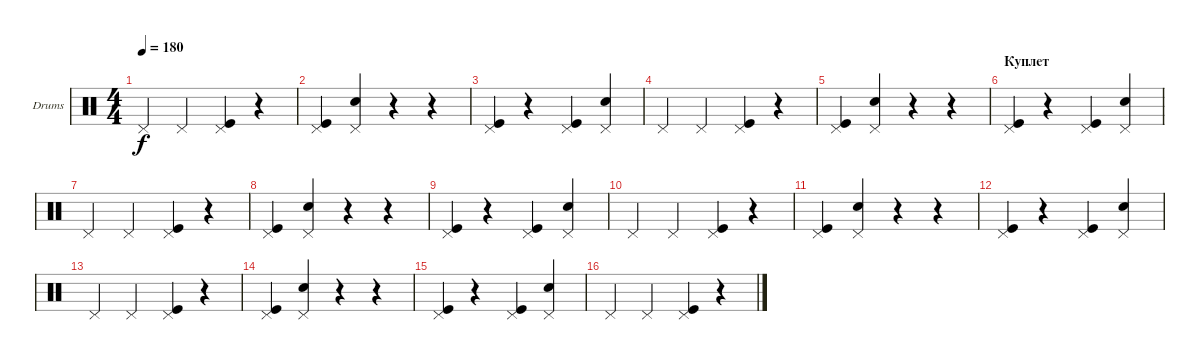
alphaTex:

\defaultSystemsLayout 4
\bracketExtendMode groupsimilarinstruments
\firstSystemTrackNameOrientation horizontal
\otherSystemsTrackNameOrientation horizontal
\track ("Георгий Гурьянов" "Drums") {instrument percussion}
\staff {score}
\articulation defaults
\ts (4 4)
\tempo 180
\clef neutral
\ks c "Pedal Hi-Hat (hit)".4{dy f} "Pedal Hi-Hat (hit)".4
("Pedal Hi-Hat (hit)" "Kick (hit)").4 r.4 |
("Pedal Hi-Hat (hit)" "Kick (hit)").4 ("Pedal Hi-Hat (hit)" "Snare (hit) 2").4 r.4 r.4 |
("Pedal Hi-Hat (hit)" "Kick (hit)").4 r.4 ("Pedal Hi-Hat (hit)" "Kick (hit)").4 ("Pedal Hi-Hat (hit)" "Snare (hit) 2").4 |
"Pedal Hi-Hat (hit)".4 "Pedal Hi-Hat (hit)".4 ("Pedal Hi-Hat (hit)" "Kick (hit)").4 r.4 |
("Pedal Hi-Hat (hit)" "Kick (hit)").4 ("Pedal Hi-Hat (hit)" "Snare (hit) 2").4 r.4 r.4 |
\section ("" "Куплет")
("Pedal Hi-Hat (hit)" "Kick (hit)").4 r.4 ("Pedal Hi-Hat (hit)" "Kick (hit)").4 ("Pedal Hi-Hat (hit)" "Snare (hit) 2").4 |
"Pedal Hi-Hat (hit)".4 "Pedal Hi-Hat (hit)".4 ("Pedal Hi-Hat (hit)" "Kick (hit)").4 r.4 |
("Pedal Hi-Hat (hit)" "Kick (hit)").4 ("Pedal Hi-Hat (hit)" "Snare (hit) 2").4 r.4 r.4 |
("Pedal Hi-Hat (hit)" "Kick (hit)").4 r.4 ("Pedal Hi-Hat (hit)" "Kick (hit)").4 ("Pedal Hi-Hat (hit)" "Snare (hit) 2").4 |
"Pedal Hi-Hat (hit)".4 "Pedal Hi-Hat (hit)".4 ("Pedal Hi-Hat (hit)" "Kick (hit)").4 r.4 |
("Pedal Hi-Hat (hit)" "Kick (hit)").4 ("Pedal Hi-Hat (hit)" "Snare (hit) 2").4 r.4 r.4 |
("Pedal Hi-Hat (hit)" "Kick (hit)").4 r.4 ("Pedal Hi-Hat (hit)" "Kick (hit)").4 ("Pedal Hi-Hat (hit)" "Snare (hit) 2").4 |
"Pedal Hi-Hat (hit)".4 "Pedal Hi-Hat (hit)".4 ("Pedal Hi-Hat (hit)" "Kick (hit)").4 r.4 |
("Pedal Hi-Hat (hit)" "Kick (hit)").4 ("Pedal Hi-Hat (hit)" "Snare (hit) 2").4 r.4 r.4 |
("Pedal Hi-Hat (hit)" "Kick (hit)").4 r.4 ("Pedal Hi-Hat (hit)" "Kick (hit)").4 ("Pedal Hi-Hat (hit)" "Snare (hit) 2").4 |
"Pedal Hi-Hat (hit)".4 "Pedal Hi-Hat (hit)".4 ("Pedal Hi-Hat (hit)" "Kick (hit)").4 r.4
